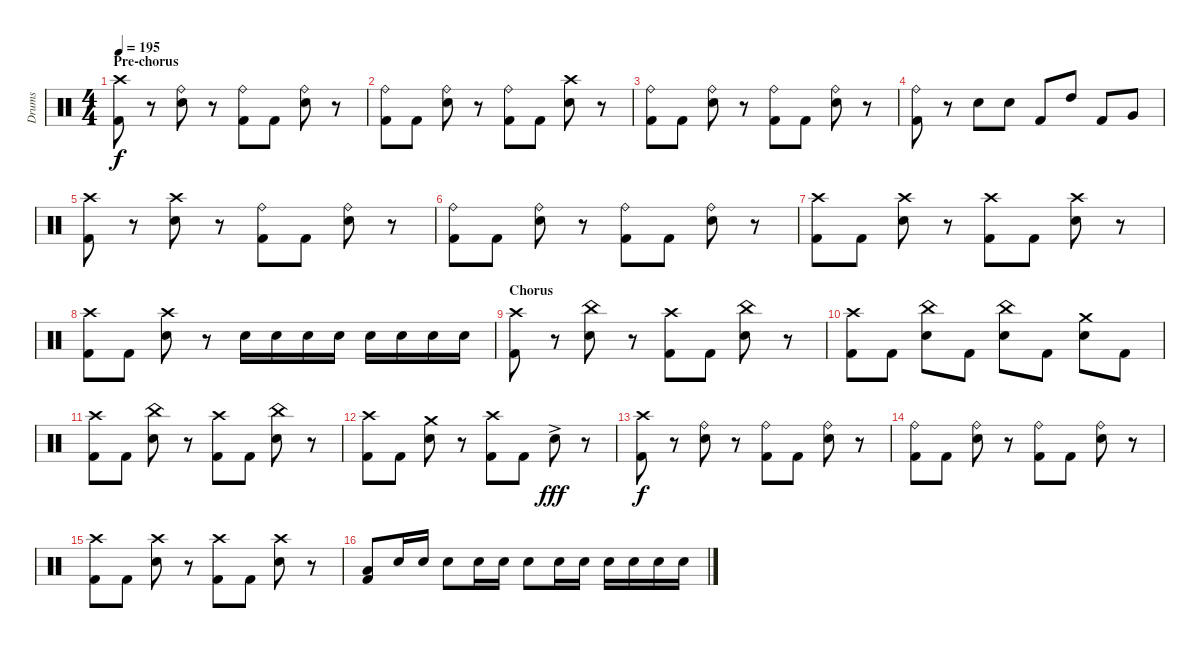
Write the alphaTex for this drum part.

\track ("Drums" "Drums") {instrument percussion}
\staff {score}
\articulation defaults
\ts (4 4)
\section ("" "Pre-chorus")
\tempo 195
\clef neutral
\ks c
("Crash high (hit)" "Kick (hit) 2").8{dy f} r.8 ("Ride (bell)" "Electric Snare (hit)").8 r.8 ("Ride (bell)" "Kick (hit) 2").8 "Kick (hit) 2".8 ("Ride (bell)" "Electric Snare (hit)").8 r.8 |
("Ride (bell)" "Kick (hit) 2").8 "Kick (hit) 2".8 ("Ride (bell)" "Electric Snare (hit)").8 r.8 ("Ride (bell)" "Kick (hit) 2").8 "Kick (hit) 2".8 ("Crash high (hit)" "Electric Snare (hit)").8 r.8 |
("Ride (bell)" "Kick (hit) 2").8 "Kick (hit) 2".8 ("Ride (bell)" "Electric Snare (hit)").8 r.8 ("Ride (bell)" "Kick (hit) 2").8 "Kick (hit) 2".8 ("Ride (bell)" "Electric Snare (hit)").8 r.8 |
("Ride (bell)" "Kick (hit) 2").8 r.8 "Electric Snare (hit)".8 "Electric Snare (hit)".8 "Kick (hit) 2".8 "High Tom (hit)".8 "Kick (hit) 2".8 "Very Low Tom (hit)".8 |
("Crash high (hit)" "Kick (hit) 2").8 r.8 ("Crash high (hit)" "Electric Snare (hit)").8 r.8 ("Ride (bell)" "Kick (hit) 2").8 "Kick (hit) 2".8 ("Ride (bell)" "Electric Snare (hit)").8 r.8 |
("Ride (bell)" "Kick (hit) 2").8 "Kick (hit) 2".8 ("Ride (bell)" "Electric Snare (hit)").8 r.8 ("Ride (bell)" "Kick (hit) 2").8 "Kick (hit) 2".8 ("Ride (bell)" "Electric Snare (hit)").8 r.8 |
("Crash high (hit)" "Kick (hit) 2").8 "Kick (hit) 2".8 ("Crash high (hit)" "Electric Snare (hit)").8 r.8 ("Crash high (hit)" "Kick (hit) 2").8 "Kick (hit) 2".8 ("Crash high (hit)" "Electric Snare (hit)").8 r.8 |
("Crash high (hit)" "Kick (hit) 2").8 "Kick (hit) 2".8 ("Crash high (hit)" "Electric Snare (hit)").8 r.8 "Electric Snare (hit)".16 "Electric Snare (hit)".16 "Electric Snare (hit)".16 "Electric Snare (hit)".16 "Electric Snare (hit)".16 "Electric Snare (hit)".16 "Electric Snare (hit)".16 "Electric Snare (hit)".16 |
\section ("" "Chorus")
("Crash high (hit)" "Kick (hit) 2").8 r.8 ("China (hit)" "Electric Snare (hit)").8 r.8 ("Crash high (hit)" "Kick (hit) 2").8 "Kick (hit) 2".8 ("China (hit)" "Electric Snare (hit)").8 r.8 |
("Crash high (hit)" "Kick (hit) 2").8 "Kick (hit) 2".8 ("China (hit)" "Electric Snare (hit)").8 "Kick (hit) 2".8 ("China (hit)" "Electric Snare (hit)").8 "Kick (hit) 2".8 ("Crash medium (hit)" "Electric Snare (hit)").8 "Kick (hit) 2".8 |
("Crash high (hit)" "Kick (hit) 2").8 "Kick (hit) 2".8 ("China (hit)" "Electric Snare (hit)").8 r.8 ("Crash high (hit)" "Kick (hit) 2").8 "Kick (hit) 2".8 ("China (hit)" "Electric Snare (hit)").8 r.8 |
("Crash high (hit)" "Kick (hit) 2").8 "Kick (hit) 2".8 ("Crash medium (hit)" "Electric Snare (hit)").8 r.8 ("Crash high (hit)" "Kick (hit) 2").8 "Kick (hit) 2".8 "Electric Snare (hit)"{ac}.8{dy fff} r.8 |
("Crash high (hit)" "Kick (hit) 2").8{dy f} r.8 ("Ride (bell)" "Electric Snare (hit)").8 r.8 ("Ride (bell)" "Kick (hit) 2").8 "Kick (hit) 2".8 ("Ride (bell)" "Electric Snare (hit)").8 r.8 |
("Ride (bell)" "Kick (hit) 2").8 "Kick (hit) 2".8 ("Ride (bell)" "Electric Snare (hit)").8 r.8 ("Ride (bell)" "Kick (hit) 2").8 "Kick (hit) 2".8 ("Ride (bell)" "Electric Snare (hit)").8 r.8 |
("Crash high (hit)" "Kick (hit) 2").8 "Kick (hit) 2".8 ("Crash high (hit)" "Electric Snare (hit)").8 r.8 ("Crash high (hit)" "Kick (hit) 2").8 "Kick (hit) 2".8 ("Crash high (hit)" "Electric Snare (hit)").8 r.8 |
("Low Tom (hit)" "Kick (hit) 2").8 "Electric Snare (hit)".16 "Electric Snare (hit)".16 "Electric Snare (hit)".8 "Electric Snare (hit)".16 "Electric Snare (hit)".16 "Electric Snare (hit)".8 "Electric Snare (hit)".16 "Electric Snare (hit)".16 "Electric Snare (hit)".16 "Electric Snare (hit)".16 "Electric Snare (hit)".16 "Electric Snare (hit)".16
